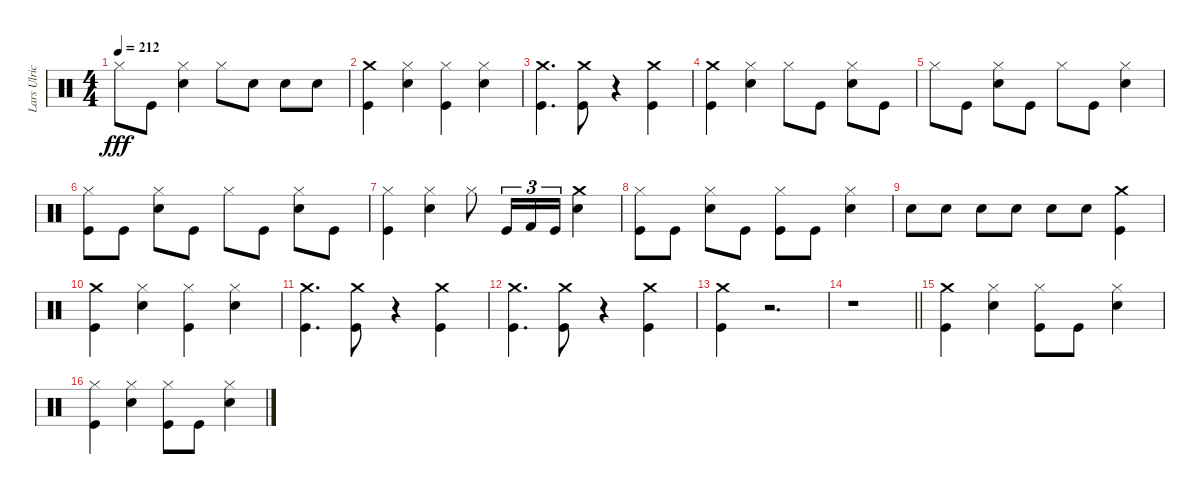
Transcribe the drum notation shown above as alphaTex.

\track ("Lars Ulrich" "Lars Ulric") {instrument percussion}
\staff {score}
\articulation defaults
\ts (4 4)
\tempo 212
\clef neutral
\ks c "Hi-Hat (closed)".8{dy fff} "Kick (hit)".8
("Snare (hit) 2" "Hi-Hat (closed)").4 "Hi-Hat (closed)".8 "Snare (hit) 2".8 "Snare (hit) 2".8 "Snare (hit) 2".8 |
("Crash medium (hit)" "Kick (hit)").4 ("Snare (hit) 2" "Hi-Hat (closed)").4 ("Hi-Hat (closed)" "Kick (hit)").4 ("Hi-Hat (closed)" "Snare (hit) 2").4 |
("Crash medium (hit)" "Kick (hit)").4{d} ("Crash medium (hit)" "Kick (hit)").8 r.4 ("Crash medium (hit)" "Kick (hit)").4 |
("Crash medium (hit)" "Kick (hit)").4 ("Snare (hit) 2" "Hi-Hat (closed)").4 "Hi-Hat (closed)".8 "Kick (hit)".8 ("Snare (hit) 2" "Hi-Hat (closed)").8 "Kick (hit)".8 |
"Hi-Hat (closed)".8 "Kick (hit)".8 ("Snare (hit) 2" "Hi-Hat (closed)").8 "Kick (hit)".8 "Hi-Hat (closed)".8 "Kick (hit)".8 ("Snare (hit) 2" "Hi-Hat (closed)").4 |
("Kick (hit)" "Hi-Hat (closed)").8 "Kick (hit)".8 ("Snare (hit) 2" "Hi-Hat (closed)").8 "Kick (hit)".8 "Hi-Hat (closed)".8 "Kick (hit)".8 ("Snare (hit) 2" "Hi-Hat (closed)").8 "Kick (hit)".8 |
("Kick (hit)" "Hi-Hat (closed)").4 ("Snare (hit) 2" "Hi-Hat (closed)").4 "Hi-Hat (closed)".8 "Kick (hit)".16{tu (3 2)} "Kick (hit) 2".16{tu (3 2)} "Kick (hit)".16{tu (3 2)} ("Snare (hit) 2" "Crash medium (hit)").4 |
("Kick (hit)" "Hi-Hat (closed)").8 "Kick (hit)".8 ("Snare (hit) 2" "Hi-Hat (closed)").8 "Kick (hit)".8 ("Kick (hit)" "Hi-Hat (closed)").8 "Kick (hit)".8 ("Snare (hit) 2" "Hi-Hat (closed)").4 |
"Snare (hit) 2".8 "Snare (hit) 2".8 "Snare (hit) 2".8 "Snare (hit) 2".8 "Snare (hit) 2".8 "Snare (hit) 2".8 ("Kick (hit)" "Crash medium (hit)").4 |
("Crash medium (hit)" "Kick (hit)").4 ("Hi-Hat (closed)" "Snare (hit) 2").4 ("Hi-Hat (closed)" "Kick (hit)").4 ("Hi-Hat (closed)" "Snare (hit) 2").4 |
("Crash medium (hit)" "Kick (hit)").4{d} ("Crash medium (hit)" "Kick (hit)").8 r.4 ("Crash medium (hit)" "Kick (hit)").4 |
("Crash medium (hit)" "Kick (hit)").4{d} ("Crash medium (hit)" "Kick (hit)").8 r.4 ("Crash medium (hit)" "Kick (hit)").4 |
("Kick (hit)" "Crash medium (hit)").4 r.2{d} |
\barLineRight lightlight
r.1 |
("Kick (hit)" "Crash medium (hit)").4 ("Snare (hit) 2" "Hi-Hat (closed)").4 ("Hi-Hat (closed)" "Kick (hit)").8 "Kick (hit)".8 ("Hi-Hat (closed)" "Snare (hit) 2").4 |
("Kick (hit)" "Hi-Hat (closed)").4 ("Hi-Hat (closed)" "Snare (hit) 2").4 ("Hi-Hat (closed)" "Kick (hit)").8 "Kick (hit)".8 ("Hi-Hat (closed)" "Snare (hit) 2").4
